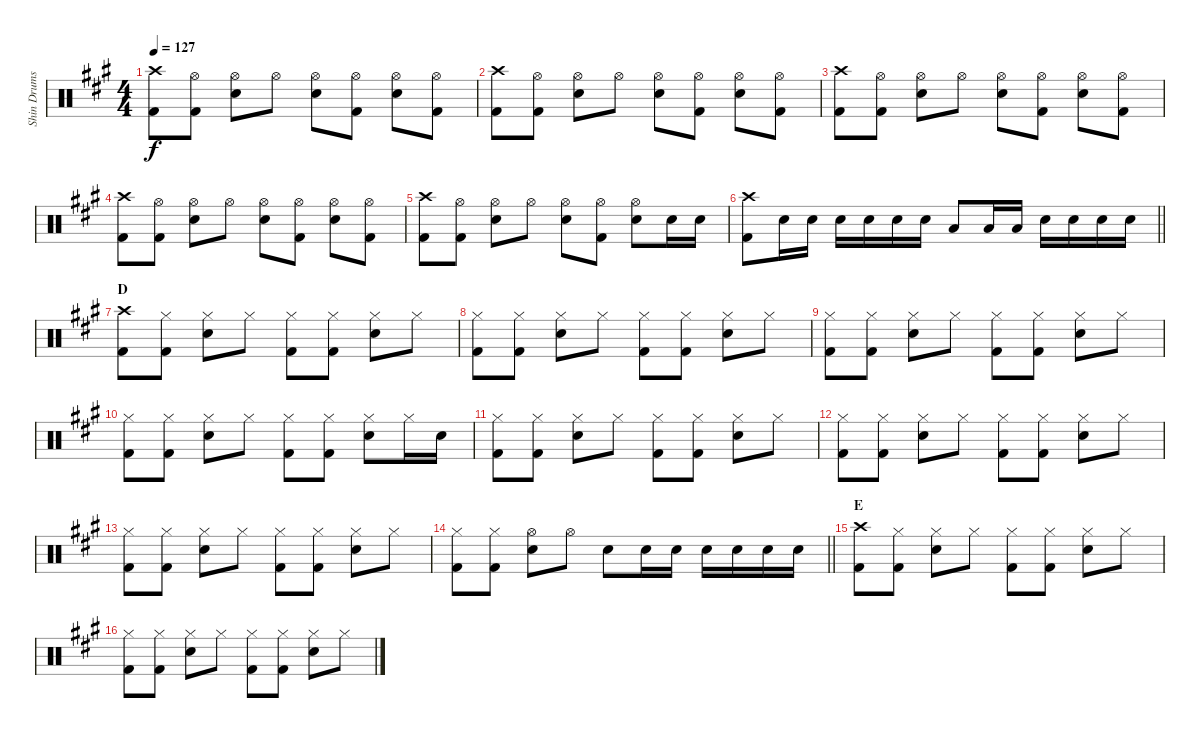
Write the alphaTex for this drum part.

\track ("Shin Drums" "Shin Drums") {instrument percussion}
\staff {score}
\articulation defaults
\ts (4 4)
\tempo 127
\clef neutral
\ks a
("Crash high (hit)" "Kick (hit) 2").8{dy f} ("Hi-Hat (open)" "Kick (hit) 2").8 ("Hi-Hat (open)" "Snare (hit) 2").8 "Hi-Hat (open)".8 ("Hi-Hat (open)" "Snare (hit) 2").8 ("Hi-Hat (open)" "Kick (hit) 2").8 ("Hi-Hat (open)" "Snare (hit) 2").8 ("Hi-Hat (open)" "Kick (hit) 2").8 |
("Crash high (hit)" "Kick (hit) 2").8 ("Hi-Hat (open)" "Kick (hit) 2").8 ("Hi-Hat (open)" "Snare (hit) 2").8 "Hi-Hat (open)".8 ("Hi-Hat (open)" "Snare (hit) 2").8 ("Hi-Hat (open)" "Kick (hit) 2").8 ("Hi-Hat (open)" "Snare (hit) 2").8 ("Hi-Hat (open)" "Kick (hit) 2").8 |
("Crash high (hit)" "Kick (hit) 2").8 ("Hi-Hat (open)" "Kick (hit) 2").8 ("Hi-Hat (open)" "Snare (hit) 2").8 "Hi-Hat (open)".8 ("Hi-Hat (open)" "Snare (hit) 2").8 ("Hi-Hat (open)" "Kick (hit) 2").8 ("Hi-Hat (open)" "Snare (hit) 2").8 ("Hi-Hat (open)" "Kick (hit) 2").8 |
("Crash high (hit)" "Kick (hit) 2").8 ("Hi-Hat (open)" "Kick (hit) 2").8 ("Hi-Hat (open)" "Snare (hit) 2").8 "Hi-Hat (open)".8 ("Hi-Hat (open)" "Snare (hit) 2").8 ("Hi-Hat (open)" "Kick (hit) 2").8 ("Hi-Hat (open)" "Snare (hit) 2").8 ("Hi-Hat (open)" "Kick (hit) 2").8 |
("Crash high (hit)" "Kick (hit) 2").8 ("Hi-Hat (open)" "Kick (hit) 2").8 ("Hi-Hat (open)" "Snare (hit) 2").8 "Hi-Hat (open)".8 ("Hi-Hat (open)" "Snare (hit) 2").8 ("Hi-Hat (open)" "Kick (hit) 2").8 ("Hi-Hat (open)" "Snare (hit) 2").8 "Snare (hit) 2".16 "Snare (hit) 2".16 |
\barLineRight lightlight
("Crash high (hit)" "Kick (hit) 2").8 "Snare (hit) 2".16 "Snare (hit) 2".16 "Snare (hit) 2".16 "Snare (hit) 2".16 "Snare (hit) 2".16 "Snare (hit) 2".16 "Low Tom (hit)".8 "Low Tom (hit)".16 "Low Tom (hit)".16 "Snare (hit) 2".16 "Snare (hit) 2".16 "Snare (hit) 2".16 "Snare (hit) 2".16 |
\section ("" "D")
("Crash high (hit)" "Kick (hit) 2").8 ("Hi-Hat (closed)" "Kick (hit) 2").8 ("Hi-Hat (closed)" "Snare (hit) 2").8 "Hi-Hat (closed)".8 ("Hi-Hat (closed)" "Kick (hit) 2").8 ("Hi-Hat (closed)" "Kick (hit) 2").8 ("Hi-Hat (closed)" "Snare (hit) 2").8 "Hi-Hat (closed)".8 |
("Hi-Hat (closed)" "Kick (hit) 2").8 ("Hi-Hat (closed)" "Kick (hit) 2").8 ("Hi-Hat (closed)" "Snare (hit) 2").8 "Hi-Hat (closed)".8 ("Hi-Hat (closed)" "Kick (hit) 2").8 ("Hi-Hat (closed)" "Kick (hit) 2").8 ("Hi-Hat (closed)" "Snare (hit) 2").8 "Hi-Hat (closed)".8 |
("Hi-Hat (closed)" "Kick (hit) 2").8 ("Hi-Hat (closed)" "Kick (hit) 2").8 ("Hi-Hat (closed)" "Snare (hit) 2").8 "Hi-Hat (closed)".8 ("Hi-Hat (closed)" "Kick (hit) 2").8 ("Hi-Hat (closed)" "Kick (hit) 2").8 ("Hi-Hat (closed)" "Snare (hit) 2").8 "Hi-Hat (closed)".8 |
("Hi-Hat (closed)" "Kick (hit) 2").8 ("Hi-Hat (closed)" "Kick (hit) 2").8 ("Hi-Hat (closed)" "Snare (hit) 2").8 "Hi-Hat (closed)".8 ("Hi-Hat (closed)" "Kick (hit) 2").8 ("Hi-Hat (closed)" "Kick (hit) 2").8 ("Hi-Hat (closed)" "Snare (hit) 2").8 "Hi-Hat (closed)".16 "Snare (hit) 2".16 |
("Hi-Hat (closed)" "Kick (hit) 2").8 ("Hi-Hat (closed)" "Kick (hit) 2").8 ("Hi-Hat (closed)" "Snare (hit) 2").8 "Hi-Hat (closed)".8 ("Hi-Hat (closed)" "Kick (hit) 2").8 ("Hi-Hat (closed)" "Kick (hit) 2").8 ("Hi-Hat (closed)" "Snare (hit) 2").8 "Hi-Hat (closed)".8 |
("Hi-Hat (closed)" "Kick (hit) 2").8 ("Hi-Hat (closed)" "Kick (hit) 2").8 ("Hi-Hat (closed)" "Snare (hit) 2").8 "Hi-Hat (closed)".8 ("Hi-Hat (closed)" "Kick (hit) 2").8 ("Hi-Hat (closed)" "Kick (hit) 2").8 ("Hi-Hat (closed)" "Snare (hit) 2").8 "Hi-Hat (closed)".8 |
("Hi-Hat (closed)" "Kick (hit) 2").8 ("Hi-Hat (closed)" "Kick (hit) 2").8 ("Hi-Hat (closed)" "Snare (hit) 2").8 "Hi-Hat (closed)".8 ("Hi-Hat (closed)" "Kick (hit) 2").8 ("Hi-Hat (closed)" "Kick (hit) 2").8 ("Hi-Hat (closed)" "Snare (hit) 2").8 "Hi-Hat (closed)".8 |
\barLineRight lightlight
("Hi-Hat (closed)" "Kick (hit) 2").8 ("Hi-Hat (closed)" "Kick (hit) 2").8 ("Hi-Hat (open)" "Snare (hit) 2").8 "Hi-Hat (open)".8 "Snare (hit) 2".8 "Snare (hit) 2".16 "Snare (hit) 2".16 "Snare (hit) 2".16 "Snare (hit) 2".16 "Snare (hit) 2".16 "Snare (hit) 2".16 |
\section ("" "E")
("Crash high (hit)" "Kick (hit) 2").8 ("Hi-Hat (closed)" "Kick (hit) 2").8 ("Hi-Hat (closed)" "Snare (hit) 2").8 "Hi-Hat (closed)".8 ("Hi-Hat (closed)" "Kick (hit) 2").8 ("Hi-Hat (closed)" "Kick (hit) 2").8 ("Hi-Hat (closed)" "Snare (hit) 2").8 "Hi-Hat (closed)".8 |
("Hi-Hat (closed)" "Kick (hit) 2").8 ("Hi-Hat (closed)" "Kick (hit) 2").8 ("Hi-Hat (closed)" "Snare (hit) 2").8 "Hi-Hat (closed)".8 ("Hi-Hat (closed)" "Kick (hit) 2").8 ("Hi-Hat (closed)" "Kick (hit) 2").8 ("Hi-Hat (closed)" "Snare (hit) 2").8 "Hi-Hat (closed)".8
